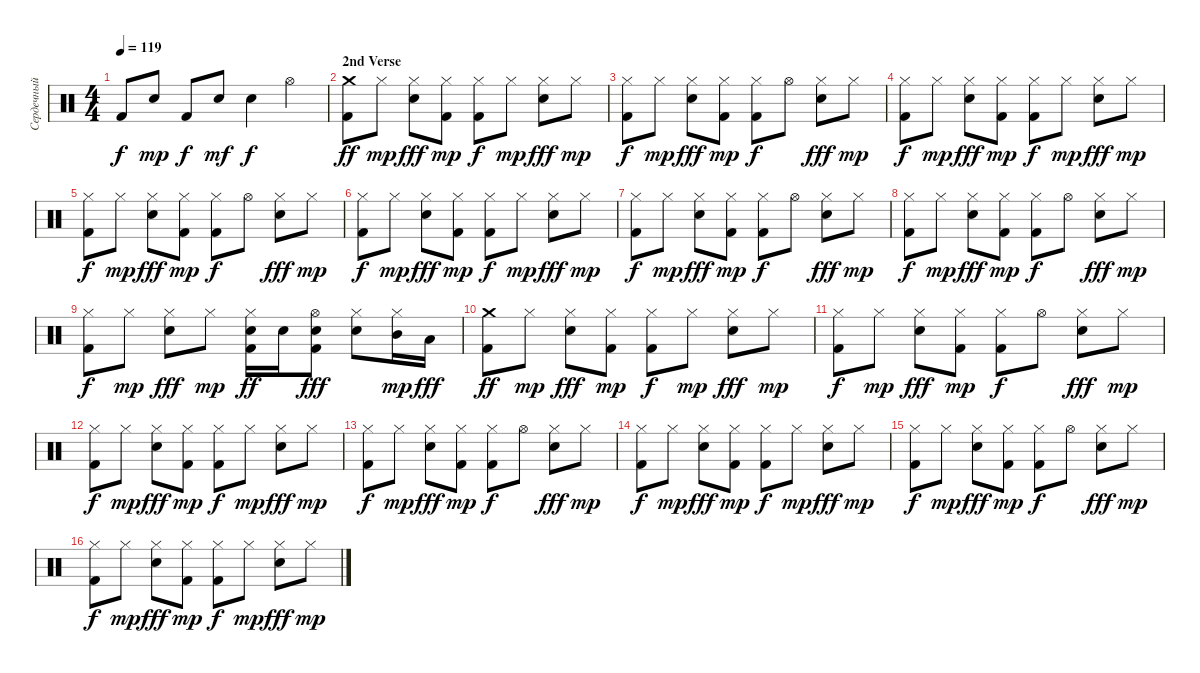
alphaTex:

\track ("Сердечный (Ударные)" "Сердечный ") {instrument percussion}
\staff {score}
\articulation defaults
\ts (4 4)
\tempo 119
\clef neutral
\ks c "Kick (hit) 2".8{dy f} "Electric Snare (hit)"{tr (40 64)}.8{dy mp} "Kick (hit) 2".8{dy f} "Electric Snare (hit)"{tr (40 64)}.8{dy mf} "Electric Snare (hit)".4{dy f} "Hi-Hat (open)".4
|
\section ("" "2nd Verse")
("Kick (hit) 2" "Crash medium (hit)").8{dy ff} "Hi-Hat (closed)".8{dy mp} ("Hi-Hat (closed)" "Electric Snare (hit)").8{dy fff} ("Hi-Hat (closed)" "Kick (hit) 2").8{dy mp} ("Hi-Hat (closed)" "Kick (hit) 2").8{dy f} "Hi-Hat (closed)".8{dy mp} ("Hi-Hat (closed)" "Electric Snare (hit)").8{dy fff} "Hi-Hat (closed)".8{dy mp} |
("Kick (hit) 2" "Hi-Hat (closed)").8{dy f} "Hi-Hat (closed)".8{dy mp} ("Hi-Hat (closed)" "Electric Snare (hit)").8{dy fff} ("Hi-Hat (closed)" "Kick (hit) 2").8{dy mp} ("Hi-Hat (closed)" "Kick (hit) 2").8{dy f} "Hi-Hat (open)".8 ("Hi-Hat (closed)" "Electric Snare (hit)").8{dy fff} "Hi-Hat (closed)".8{dy mp} |
("Kick (hit) 2" "Hi-Hat (closed)").8{dy f} "Hi-Hat (closed)".8{dy mp} ("Hi-Hat (closed)" "Electric Snare (hit)").8{dy fff} ("Hi-Hat (closed)" "Kick (hit) 2").8{dy mp} ("Hi-Hat (closed)" "Kick (hit) 2").8{dy f} "Hi-Hat (closed)".8{dy mp} ("Hi-Hat (closed)" "Electric Snare (hit)").8{dy fff} "Hi-Hat (closed)".8{dy mp} |
("Kick (hit) 2" "Hi-Hat (closed)").8{dy f} "Hi-Hat (closed)".8{dy mp} ("Hi-Hat (closed)" "Electric Snare (hit)").8{dy fff} ("Hi-Hat (closed)" "Kick (hit) 2").8{dy mp} ("Hi-Hat (closed)" "Kick (hit) 2").8{dy f} "Hi-Hat (open)".8 ("Hi-Hat (closed)" "Electric Snare (hit)").8{dy fff} "Hi-Hat (closed)".8{dy mp} |
("Kick (hit) 2" "Hi-Hat (closed)").8{dy f} "Hi-Hat (closed)".8{dy mp} ("Hi-Hat (closed)" "Electric Snare (hit)").8{dy fff} ("Hi-Hat (closed)" "Kick (hit) 2").8{dy mp} ("Hi-Hat (closed)" "Kick (hit) 2").8{dy f} "Hi-Hat (closed)".8{dy mp} ("Hi-Hat (closed)" "Electric Snare (hit)").8{dy fff} "Hi-Hat (closed)".8{dy mp} |
("Kick (hit) 2" "Hi-Hat (closed)").8{dy f} "Hi-Hat (closed)".8{dy mp} ("Hi-Hat (closed)" "Electric Snare (hit)").8{dy fff} ("Hi-Hat (closed)" "Kick (hit) 2").8{dy mp} ("Hi-Hat (closed)" "Kick (hit) 2").8{dy f} "Hi-Hat (open)".8 ("Hi-Hat (closed)" "Electric Snare (hit)").8{dy fff} "Hi-Hat (closed)".8{dy mp} |
("Kick (hit) 2" "Hi-Hat (closed)").8{dy f} "Hi-Hat (closed)".8{dy mp} ("Hi-Hat (closed)" "Electric Snare (hit)").8{dy fff} ("Hi-Hat (closed)" "Kick (hit) 2").8{dy mp} ("Hi-Hat (closed)" "Kick (hit) 2").8{dy f} "Hi-Hat (open)".8 ("Hi-Hat (closed)" "Electric Snare (hit)").8{dy fff} "Hi-Hat (closed)".8{dy mp} |
("Kick (hit) 2" "Hi-Hat (closed)").8{dy f} "Hi-Hat (closed)".8{dy mp} ("Hi-Hat (closed)" "Electric Snare (hit)").8{dy fff} "Hi-Hat (closed)".8{dy mp} ("Electric Snare (hit)" "Hi-Hat (closed)" "Kick (hit) 2").16{dy ff} "Electric Snare (hit)".16 ("Electric Snare (hit)" "Hi-Hat (open)" "Kick (hit) 2").8{dy fff} ("Hi-Hat (closed)" "Electric Snare (hit)").8 ("Mid Tom (hit)" "Hi-Hat (closed)").16{dy mp} "Low Tom (hit)".16{dy fff} |
("Kick (hit) 2" "Crash medium (hit)").8{dy ff} "Hi-Hat (closed)".8{dy mp} ("Hi-Hat (closed)" "Electric Snare (hit)").8{dy fff} ("Hi-Hat (closed)" "Kick (hit) 2").8{dy mp} ("Hi-Hat (closed)" "Kick (hit) 2").8{dy f} "Hi-Hat (closed)".8{dy mp} ("Hi-Hat (closed)" "Electric Snare (hit)").8{dy fff} "Hi-Hat (closed)".8{dy mp} |
("Kick (hit) 2" "Hi-Hat (closed)").8{dy f} "Hi-Hat (closed)".8{dy mp} ("Hi-Hat (closed)" "Electric Snare (hit)").8{dy fff} ("Hi-Hat (closed)" "Kick (hit) 2").8{dy mp} ("Hi-Hat (closed)" "Kick (hit) 2").8{dy f} "Hi-Hat (open)".8 ("Hi-Hat (closed)" "Electric Snare (hit)").8{dy fff} "Hi-Hat (closed)".8{dy mp} |
("Kick (hit) 2" "Hi-Hat (closed)").8{dy f} "Hi-Hat (closed)".8{dy mp} ("Hi-Hat (closed)" "Electric Snare (hit)").8{dy fff} ("Hi-Hat (closed)" "Kick (hit) 2").8{dy mp} ("Hi-Hat (closed)" "Kick (hit) 2").8{dy f} "Hi-Hat (closed)".8{dy mp} ("Hi-Hat (closed)" "Electric Snare (hit)").8{dy fff} "Hi-Hat (closed)".8{dy mp} |
("Kick (hit) 2" "Hi-Hat (closed)").8{dy f} "Hi-Hat (closed)".8{dy mp} ("Hi-Hat (closed)" "Electric Snare (hit)").8{dy fff} ("Hi-Hat (closed)" "Kick (hit) 2").8{dy mp} ("Hi-Hat (closed)" "Kick (hit) 2").8{dy f} "Hi-Hat (open)".8 ("Hi-Hat (closed)" "Electric Snare (hit)").8{dy fff} "Hi-Hat (closed)".8{dy mp} |
("Kick (hit) 2" "Hi-Hat (closed)").8{dy f} "Hi-Hat (closed)".8{dy mp} ("Hi-Hat (closed)" "Electric Snare (hit)").8{dy fff} ("Hi-Hat (closed)" "Kick (hit) 2").8{dy mp} ("Hi-Hat (closed)" "Kick (hit) 2").8{dy f} "Hi-Hat (closed)".8{dy mp} ("Hi-Hat (closed)" "Electric Snare (hit)").8{dy fff} "Hi-Hat (closed)".8{dy mp} |
("Kick (hit) 2" "Hi-Hat (closed)").8{dy f} "Hi-Hat (closed)".8{dy mp} ("Hi-Hat (closed)" "Electric Snare (hit)").8{dy fff} ("Hi-Hat (closed)" "Kick (hit) 2").8{dy mp} ("Hi-Hat (closed)" "Kick (hit) 2").8{dy f} "Hi-Hat (open)".8 ("Hi-Hat (closed)" "Electric Snare (hit)").8{dy fff} "Hi-Hat (closed)".8{dy mp} |
("Kick (hit) 2" "Hi-Hat (closed)").8{dy f} "Hi-Hat (closed)".8{dy mp} ("Hi-Hat (closed)" "Electric Snare (hit)").8{dy fff} ("Hi-Hat (closed)" "Kick (hit) 2").8{dy mp} ("Hi-Hat (closed)" "Kick (hit) 2").8{dy f} "Hi-Hat (closed)".8{dy mp} ("Hi-Hat (closed)" "Electric Snare (hit)").8{dy fff} "Hi-Hat (closed)".8{dy mp}
